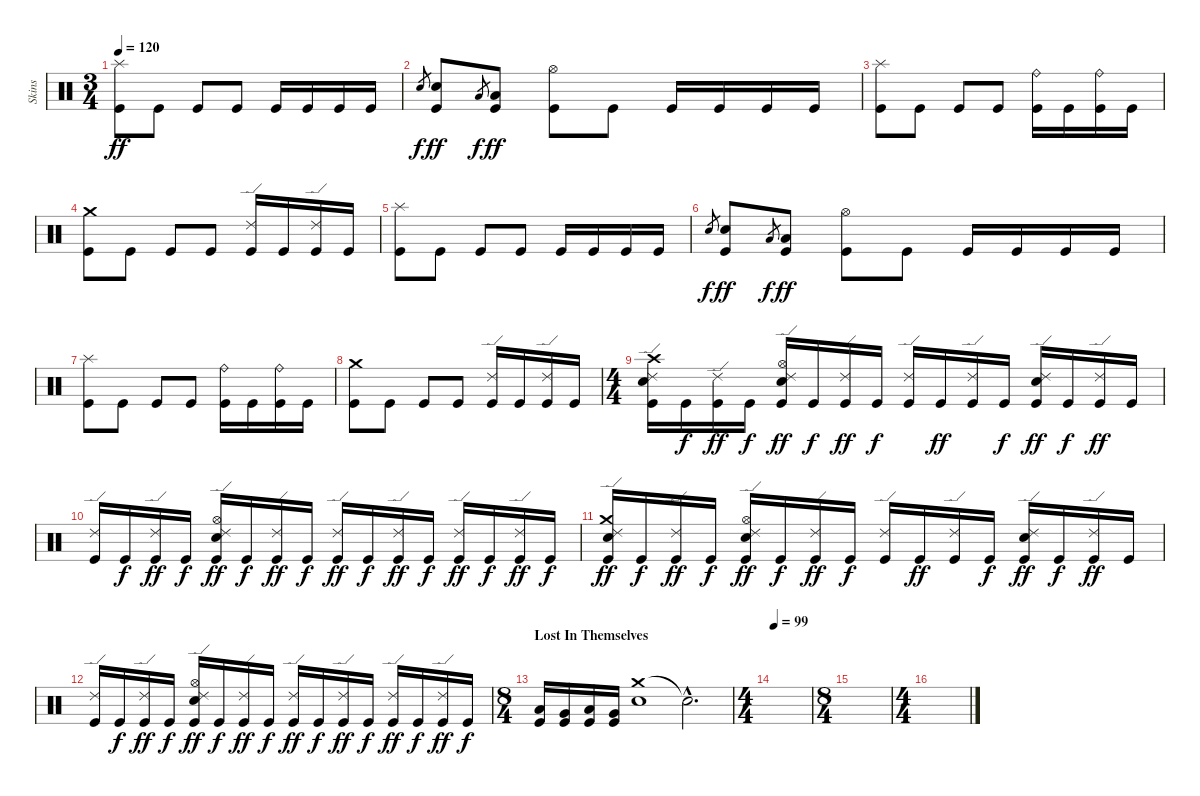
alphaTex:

\track ("Skins" "Skins") {instrument percussion}
\staff {score}
\articulation defaults
\ts (3 4)
\tempo 120
\clef neutral
\ks c
("Splash (hit)" "Kick (hit)").8{dy ff} "Kick (hit)".8 "Kick (hit)".8 "Kick (hit)".8 "Kick (hit)".16 "Kick (hit)".16 "Kick (hit)".16 "Kick (hit)".16 |
"Snare (hit) 2".8{gr dy f} ("Snare (hit) 2" "Kick (hit)").8{dy ff} "Low Tom (hit)".8{gr dy f} ("Low Tom (hit)" "Kick (hit)").8{dy ff} ("Hi-Hat (open)" "Kick (hit)").8 "Kick (hit)".8 "Kick (hit)".16 "Kick (hit)".16 "Kick (hit)".16 "Kick (hit)".16 |
("Splash (hit)" "Kick (hit)").8 "Kick (hit)".8 "Kick (hit)".8 "Kick (hit)".8 ("Ride (bell)" "Kick (hit)").16 "Kick (hit)".16 ("Ride (bell)" "Kick (hit)").16 "Kick (hit)".16 |
("Crash medium (hit)" "Kick (hit)").8 "Kick (hit)".8 "Kick (hit)".8 "Kick (hit)".8 ("Ride (edge) 2" "Kick (hit)").16 "Kick (hit)".16 ("Ride (edge) 2" "Kick (hit)").16 "Kick (hit)".16 |
("Splash (hit)" "Kick (hit)").8 "Kick (hit)".8 "Kick (hit)".8 "Kick (hit)".8 "Kick (hit)".16 "Kick (hit)".16 "Kick (hit)".16 "Kick (hit)".16 |
"Snare (hit) 2".8{gr dy f} ("Snare (hit) 2" "Kick (hit)").8{dy ff} "Low Tom (hit)".8{gr dy f} ("Low Tom (hit)" "Kick (hit)").8{dy ff} ("Hi-Hat (open)" "Kick (hit)").8 "Kick (hit)".8 "Kick (hit)".16 "Kick (hit)".16 "Kick (hit)".16 "Kick (hit)".16 |
("Splash (hit)" "Kick (hit)").8 "Kick (hit)".8 "Kick (hit)".8 "Kick (hit)".8 ("Ride (bell)" "Kick (hit)").16 "Kick (hit)".16 ("Ride (bell)" "Kick (hit)").16 "Kick (hit)".16 |
("Crash medium (hit)" "Kick (hit)").8 "Kick (hit)".8 "Kick (hit)".8 "Kick (hit)".8 ("Ride (edge) 2" "Kick (hit)").16 "Kick (hit)".16 ("Ride (edge) 2" "Kick (hit)").16 "Kick (hit)".16 |
\ts (4 4)
("Crash high (hit)" "Snare (hit) 2" "Ride (edge) 2" "Kick (hit)").16 "Kick (hit)".16{dy f} ("Ride (edge) 2" "Kick (hit)").16{dy ff} "Kick (hit)".16{dy f} ("Hi-Hat (open)" "Electric Snare (hit)" "Ride (edge) 2" "Kick (hit)").16{dy ff} "Kick (hit)".16{dy f} ("Ride (edge) 2" "Kick (hit)").16{dy ff} "Kick (hit)".16{dy f} ("Ride (edge) 2" "Kick (hit)").16 "Kick (hit)".16{dy ff} ("Ride (edge) 2" "Kick (hit)").16 "Kick (hit)".16{dy f} ("Snare (hit) 2" "Ride (edge) 2" "Kick (hit)").16{dy ff} "Kick (hit)".16{dy f} ("Ride (edge) 2" "Kick (hit)").16{dy ff} "Kick (hit)".16 |
("Ride (edge) 2" "Kick (hit)").16 "Kick (hit)".16{dy f} ("Ride (edge) 2" "Kick (hit)").16{dy ff} "Kick (hit)".16{dy f} ("Hi-Hat (open)" "Electric Snare (hit)" "Ride (edge) 2" "Kick (hit)").16{dy ff} "Kick (hit)".16{dy f} ("Ride (edge) 2" "Kick (hit)").16{dy ff} "Kick (hit)".16{dy f} ("Ride (edge) 2" "Kick (hit)").16{dy ff} "Kick (hit)".16{dy f} ("Ride (edge) 2" "Kick (hit)").16{dy ff} "Kick (hit)".16{dy f} ("Ride (edge) 2" "Kick (hit)").16{dy ff} "Kick (hit)".16{dy f} ("Ride (edge) 2" "Kick (hit)").16{dy ff} "Kick (hit)".16{dy f} |
("Crash medium (hit)" "Snare (hit) 2" "Ride (edge) 2" "Kick (hit)").16{dy ff} "Kick (hit)".16{dy f} ("Ride (edge) 2" "Kick (hit)").16{dy ff} "Kick (hit)".16{dy f} ("Hi-Hat (open)" "Electric Snare (hit)" "Ride (edge) 2" "Kick (hit)").16{dy ff} "Kick (hit)".16{dy f} ("Ride (edge) 2" "Kick (hit)").16{dy ff} "Kick (hit)".16{dy f} ("Ride (edge) 2" "Kick (hit)").16 "Kick (hit)".16{dy ff} ("Ride (edge) 2" "Kick (hit)").16 "Kick (hit)".16{dy f} ("Snare (hit) 2" "Ride (edge) 2" "Kick (hit)").16{dy ff} "Kick (hit)".16{dy f} ("Ride (edge) 2" "Kick (hit)").16{dy ff} "Kick (hit)".16 |
("Ride (edge) 2" "Kick (hit)").16 "Kick (hit)".16{dy f} ("Ride (edge) 2" "Kick (hit)").16{dy ff} "Kick (hit)".16{dy f} ("Hi-Hat (open)" "Electric Snare (hit)" "Ride (edge) 2" "Kick (hit)").16{dy ff} "Kick (hit)".16{dy f} ("Ride (edge) 2" "Kick (hit)").16{dy ff} "Kick (hit)".16{dy f} ("Ride (edge) 2" "Kick (hit)").16{dy ff} "Kick (hit)".16{dy f} ("Ride (edge) 2" "Kick (hit)").16{dy ff} "Kick (hit)".16{dy f} ("Ride (edge) 2" "Kick (hit)").16{dy ff} "Kick (hit)".16{dy f} ("Ride (edge) 2" "Kick (hit)").16{dy ff} "Kick (hit)".16{dy f} |
\ts (8 4)
\section ("" "Lost In Themselves")
("Low Tom (hit)" "Kick (hit)").16 ("Very Low Tom (hit)" "Kick (hit)").16 ("Low Floor Tom (hit)" "Kick (hit)").16 ("Very Low Tom (hit)" "Kick (hit)").16 ("Crash medium (hit)" "Electric Snare (hit)").1 "Snare (hit)"{hac t}.2{d} |
\ts (4 4)
\tempo 99
|
\ts (8 4)
|
\ts (4 4)
